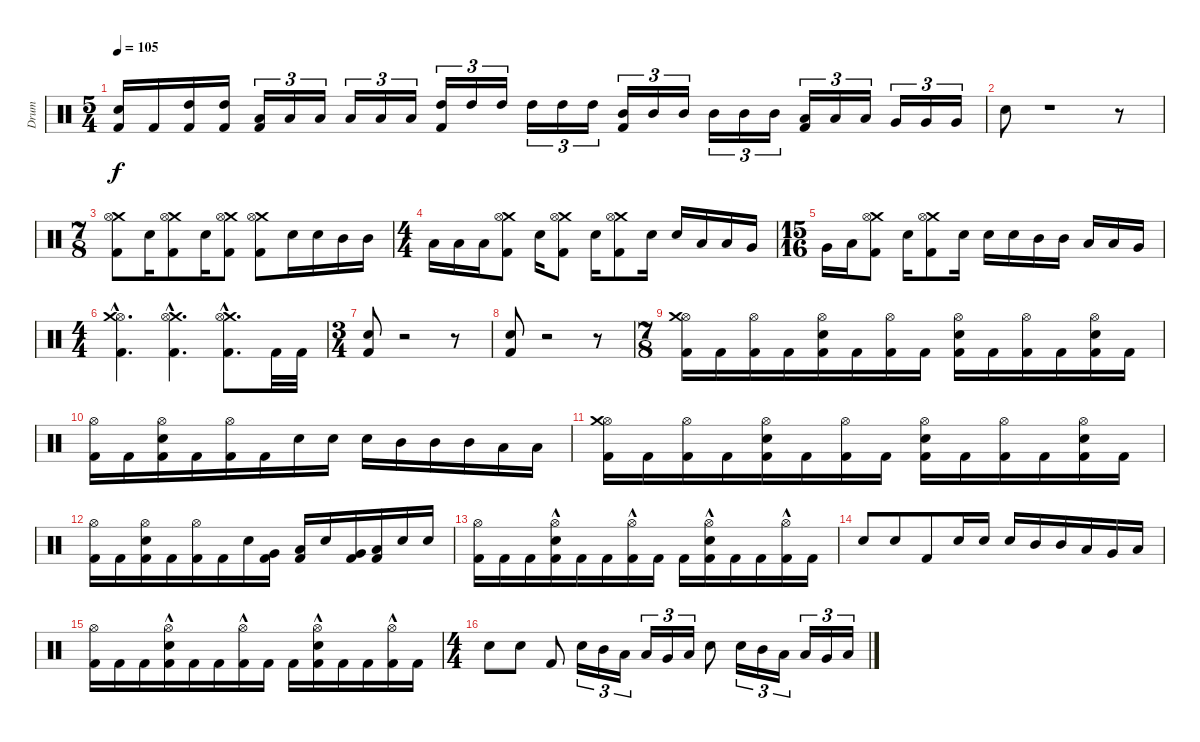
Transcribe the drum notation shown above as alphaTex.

\track ("Drum" "Drum") {instrument percussion}
\staff {score}
\articulation defaults
\ts (5 4)
\tempo 105
\clef neutral
\ks c
("Electric Snare (hit)" "Kick (hit) 2").16{dy f} "Kick (hit) 2".16 ("High Tom (hit)" "Kick (hit) 2").16 ("High Tom (hit)" "Kick (hit) 2").16 ("Kick (hit) 2" "Low Floor Tom (hit)").16{tu (3 2)} "Low Floor Tom (hit)".16{tu (3 2)} "Low Floor Tom (hit)".16{tu (3 2)} "Low Floor Tom (hit)".16{tu (3 2)} "Low Floor Tom (hit)".16{tu (3 2)} "Low Floor Tom (hit)".16{tu (3 2)} ("Kick (hit) 2" "High Tom (hit)").16{tu (3 2)} "High Tom (hit)".16{tu (3 2)} "High Tom (hit)".16{tu (3 2)} "High Tom (hit)".16{tu (3 2)} "High Tom (hit)".16{tu (3 2)} "High Tom (hit)".16{tu (3 2)} ("Kick (hit) 2" "Mid Tom (hit)").16{tu (3 2)} "Mid Tom (hit)".16{tu (3 2)} "Mid Tom (hit)".16{tu (3 2)} "Mid Tom (hit)".16{tu (3 2)} "Mid Tom (hit)".16{tu (3 2)} "Mid Tom (hit)".16{tu (3 2)} ("Kick (hit) 2" "Low Tom (hit)").16{tu (3 2)} "Low Tom (hit)".16{tu (3 2)} "Low Tom (hit)".16{tu (3 2)} "Very Low Tom (hit)".16{tu (3 2)} "Very Low Tom (hit)".16{tu (3 2)} "Very Low Tom (hit)".16{tu (3 2)} |
"Electric Snare (hit)".8 r.1 r.8 |
\ts (7 8)
("Crash medium (hit)" "Hi-Hat (open)" "Kick (hit) 2").8 "Electric Snare (hit)".16 ("Crash medium (hit)" "Hi-Hat (open)" "Kick (hit) 2").8 "Electric Snare (hit)".16 ("Crash medium (hit)" "Hi-Hat (open)" "Kick (hit) 2").8 ("Crash medium (hit)" "Hi-Hat (open)" "Kick (hit) 2").8 "Electric Snare (hit)".16 "Electric Snare (hit)".16 "Mid Tom (hit)".16 "Mid Tom (hit)".16 |
\ts (4 4)
"Low Tom (hit)".16 "Low Tom (hit)".16 "Low Floor Tom (hit)".16 ("Crash medium (hit)" "Hi-Hat (open)" "Kick (hit) 2").8 "Electric Snare (hit)".16 ("Crash medium (hit)" "Hi-Hat (open)" "Kick (hit) 2").8 "Electric Snare (hit)".16 ("Crash medium (hit)" "Hi-Hat (open)" "Kick (hit) 2").8 "Electric Snare (hit)".16 "Electric Snare (hit)".16 "Low Tom (hit)".16 "Low Tom (hit)".16 "Very Low Tom (hit)".16 |
\ts (15 16)
"Very Low Tom (hit)".16 "Low Floor Tom (hit)".16 ("Crash medium (hit)" "Hi-Hat (open)" "Kick (hit) 2").8 "Electric Snare (hit)".16 ("Crash medium (hit)" "Hi-Hat (open)" "Kick (hit) 2").8 "Electric Snare (hit)".16 "Electric Snare (hit)".16 "Electric Snare (hit)".16 "Mid Tom (hit)".16 "Mid Tom (hit)".16 "Low Tom (hit)".16 "Low Tom (hit)".16 "Very Low Tom (hit)".16 |
\ts (4 4)
("Hi-Hat (open)"{hac} "Crash medium (hit)"{hac} "Kick (hit) 2"{hac}).4{d} ("Crash medium (hit)"{hac} "Hi-Hat (open)"{hac} "Kick (hit) 2"{hac}).4{d} ("Crash medium (hit)" "Hi-Hat (open)" "Kick (hit) 2"{hac}).8{d} "Kick (hit) 2".32 "Kick (hit) 2".32 |
\ts (3 4)
("Kick (hit) 2" "Snare (hit) 2").8{volume 11} r.2 r.8 |
("Kick (hit) 2" "Snare (hit) 2").8 r.2 r.8 |
\ts (7 8)
("Hi-Hat (open)" "Crash medium (hit)" "Kick (hit) 2").16{volume 10} "Kick (hit) 2".16 ("Hi-Hat (open)" "Kick (hit) 2").16 "Kick (hit) 2".16 ("Hi-Hat (open)" "Electric Snare (hit)" "Kick (hit) 2").16 "Kick (hit) 2".16 ("Hi-Hat (open)" "Kick (hit) 2").16 "Kick (hit) 2".16 ("Hi-Hat (open)" "Electric Snare (hit)" "Kick (hit) 2").16 "Kick (hit) 2".16 ("Hi-Hat (open)" "Kick (hit) 2").16 "Kick (hit) 2".16 ("Hi-Hat (open)" "Electric Snare (hit)" "Kick (hit) 2").16 "Kick (hit) 2".16 |
("Hi-Hat (open)" "Kick (hit) 2").16 "Kick (hit) 2".16 ("Electric Snare (hit)" "Hi-Hat (open)" "Kick (hit) 2").16 "Kick (hit) 2".16 ("Hi-Hat (open)" "Kick (hit) 2").16 "Kick (hit) 2".16 "Electric Snare (hit)".16 "Electric Snare (hit)".16 "Electric Snare (hit)".16 "Mid Tom (hit)".16 "Mid Tom (hit)".16 "Mid Tom (hit)".16 "Low Tom (hit)".16 "Low Tom (hit)".16 |
("Hi-Hat (open)" "Crash medium (hit)" "Kick (hit) 2").16{volume 10} "Kick (hit) 2".16 ("Hi-Hat (open)" "Kick (hit) 2").16 "Kick (hit) 2".16 ("Hi-Hat (open)" "Electric Snare (hit)" "Kick (hit) 2").16 "Kick (hit) 2".16 ("Hi-Hat (open)" "Kick (hit) 2").16 "Kick (hit) 2".16 ("Hi-Hat (open)" "Electric Snare (hit)" "Kick (hit) 2").16 "Kick (hit) 2".16 ("Hi-Hat (open)" "Kick (hit) 2").16 "Kick (hit) 2".16 ("Hi-Hat (open)" "Electric Snare (hit)" "Kick (hit) 2").16 "Kick (hit) 2".16 |
("Hi-Hat (open)" "Kick (hit) 2").16 "Kick (hit) 2".16 ("Electric Snare (hit)" "Hi-Hat (open)" "Kick (hit) 2").16 "Kick (hit) 2".16 ("Hi-Hat (open)" "Kick (hit) 2").16 "Kick (hit) 2".16 "Electric Snare (hit)".16 ("Kick (hit) 2" "Very Low Tom (hit)").16 ("Kick (hit) 2" "Low Floor Tom (hit)").16 "Electric Snare (hit)".16 ("Kick (hit) 2" "Very Low Tom (hit)").16 ("Kick (hit) 2" "Low Floor Tom (hit)").16 "Electric Snare (hit)".16 "Electric Snare (hit)".16 |
("Hi-Hat (open)" "Kick (hit) 2").16 "Kick (hit) 2".16 "Kick (hit) 2".16 ("Hi-Hat (open)"{hac} "Electric Snare (hit)"{hac} "Kick (hit) 2").16 "Kick (hit) 2".16 "Kick (hit) 2".16 ("Hi-Hat (open)"{hac} "Kick (hit) 2").16 "Kick (hit) 2".16 "Kick (hit) 2".16 ("Hi-Hat (open)"{hac} "Electric Snare (hit)"{hac} "Kick (hit) 2").16 "Kick (hit) 2".16 "Kick (hit) 2".16 ("Hi-Hat (open)"{hac} "Kick (hit) 2").16 "Kick (hit) 2".16 |
"Electric Snare (hit)".8 "Electric Snare (hit)".8 "Kick (hit) 2".8 "Electric Snare (hit)".16 "Electric Snare (hit)".16 "Electric Snare (hit)".16 "Mid Tom (hit)".16 "Mid Tom (hit)".16 "Low Tom (hit)".16 "Very Low Tom (hit)".16 "Low Floor Tom (hit)".16 |
("Hi-Hat (open)" "Kick (hit) 2").16 "Kick (hit) 2".16 "Kick (hit) 2".16 ("Hi-Hat (open)"{hac} "Electric Snare (hit)"{hac} "Kick (hit) 2").16 "Kick (hit) 2".16 "Kick (hit) 2".16 ("Hi-Hat (open)"{hac} "Kick (hit) 2").16 "Kick (hit) 2".16 "Kick (hit) 2".16 ("Hi-Hat (open)"{hac} "Electric Snare (hit)"{hac} "Kick (hit) 2").16 "Kick (hit) 2".16 "Kick (hit) 2".16 ("Hi-Hat (open)"{hac} "Kick (hit) 2").16 "Kick (hit) 2".16 |
\ts (4 4)
"Electric Snare (hit)".8 "Electric Snare (hit)".8 "Kick (hit) 2".8 "Electric Snare (hit)".16{tu (3 2)} "Mid Tom (hit)".16{tu (3 2)} "Low Tom (hit)".16{tu (3 2)} "Low Tom (hit)".16{tu (3 2)} "Very Low Tom (hit)".16{tu (3 2)} "Low Floor Tom (hit)".16{tu (3 2)} "Electric Snare (hit)".8 "Electric Snare (hit)".16{tu (3 2)} "Mid Tom (hit)".16{tu (3 2)} "Low Tom (hit)".16{tu (3 2)} "Low Tom (hit)".16{tu (3 2)} "Very Low Tom (hit)".16{tu (3 2)} "Low Floor Tom (hit)".16{tu (3 2)}
